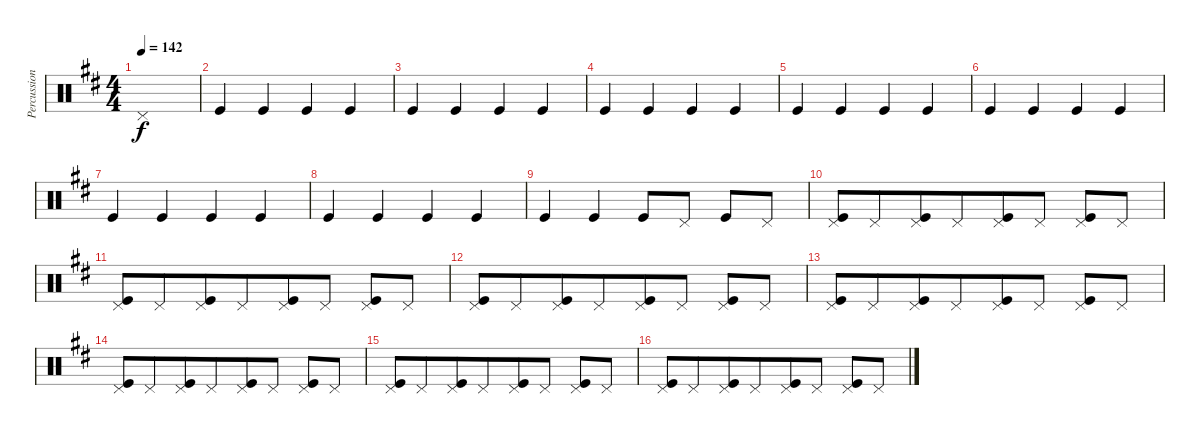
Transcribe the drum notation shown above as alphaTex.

\track ("Percussion" "Percussion") {instrument percussion}
\staff {score}
\articulation defaults
\ts (4 4)
\tempo 142
\clef neutral
\ks d "Pedal Hi-Hat (hit)".1{dy f}
|
"Kick (hit)".4{beam merge} "Kick (hit)".4{beam merge} "Kick (hit)".4 "Kick (hit)".4 |
"Kick (hit)".4 "Kick (hit)".4 "Kick (hit)".4 "Kick (hit)".4 |
"Kick (hit)".4 "Kick (hit)".4 "Kick (hit)".4{beam merge} "Kick (hit)".4 |
"Kick (hit)".4 "Kick (hit)".4 "Kick (hit)".4 "Kick (hit)".4 |
"Kick (hit)".4{beam merge} "Kick (hit)".4 "Kick (hit)".4{beam merge} "Kick (hit)".4 |
"Kick (hit)".4 "Kick (hit)".4{beam merge} "Kick (hit)".4{beam merge} "Kick (hit)".4 |
"Kick (hit)".4 "Kick (hit)".4 "Kick (hit)".4 "Kick (hit)".4 |
"Kick (hit)".4 "Kick (hit)".4{beam merge} "Kick (hit)".8 "Pedal Hi-Hat (hit)".8 "Kick (hit)".8 "Pedal Hi-Hat (hit)".8 |
("Kick (hit)" "Pedal Hi-Hat (hit)").8{beam merge} "Pedal Hi-Hat (hit)".8{beam merge} ("Kick (hit)" "Pedal Hi-Hat (hit)").8 "Pedal Hi-Hat (hit)".8{beam merge} ("Kick (hit)" "Pedal Hi-Hat (hit)").8{beam merge} "Pedal Hi-Hat (hit)".8 ("Kick (hit)" "Pedal Hi-Hat (hit)").8{beam merge} "Pedal Hi-Hat (hit)".8 |
("Kick (hit)" "Pedal Hi-Hat (hit)").8{beam merge} "Pedal Hi-Hat (hit)".8{beam merge} ("Kick (hit)" "Pedal Hi-Hat (hit)").8 "Pedal Hi-Hat (hit)".8{beam merge} ("Kick (hit)" "Pedal Hi-Hat (hit)").8{beam merge} "Pedal Hi-Hat (hit)".8 ("Kick (hit)" "Pedal Hi-Hat (hit)").8{beam merge} "Pedal Hi-Hat (hit)".8 |
("Kick (hit)" "Pedal Hi-Hat (hit)").8{beam merge} "Pedal Hi-Hat (hit)".8{beam merge} ("Kick (hit)" "Pedal Hi-Hat (hit)").8 "Pedal Hi-Hat (hit)".8{beam merge} ("Kick (hit)" "Pedal Hi-Hat (hit)").8{beam merge} "Pedal Hi-Hat (hit)".8 ("Kick (hit)" "Pedal Hi-Hat (hit)").8{beam merge} "Pedal Hi-Hat (hit)".8 |
("Kick (hit)" "Pedal Hi-Hat (hit)").8{beam merge} "Pedal Hi-Hat (hit)".8{beam merge} ("Kick (hit)" "Pedal Hi-Hat (hit)").8 "Pedal Hi-Hat (hit)".8{beam merge} ("Kick (hit)" "Pedal Hi-Hat (hit)").8{beam merge} "Pedal Hi-Hat (hit)".8 ("Kick (hit)" "Pedal Hi-Hat (hit)").8{beam merge} "Pedal Hi-Hat (hit)".8 |
("Kick (hit)" "Pedal Hi-Hat (hit)").8{beam merge} "Pedal Hi-Hat (hit)".8{beam merge} ("Kick (hit)" "Pedal Hi-Hat (hit)").8 "Pedal Hi-Hat (hit)".8{beam merge} ("Kick (hit)" "Pedal Hi-Hat (hit)").8{beam merge} "Pedal Hi-Hat (hit)".8 ("Kick (hit)" "Pedal Hi-Hat (hit)").8{beam merge} "Pedal Hi-Hat (hit)".8 |
("Kick (hit)" "Pedal Hi-Hat (hit)").8{beam merge} "Pedal Hi-Hat (hit)".8{beam merge} ("Kick (hit)" "Pedal Hi-Hat (hit)").8 "Pedal Hi-Hat (hit)".8{beam merge} ("Kick (hit)" "Pedal Hi-Hat (hit)").8{beam merge} "Pedal Hi-Hat (hit)".8 ("Kick (hit)" "Pedal Hi-Hat (hit)").8{beam merge} "Pedal Hi-Hat (hit)".8 |
("Kick (hit)" "Pedal Hi-Hat (hit)").8{beam merge} "Pedal Hi-Hat (hit)".8{beam merge} ("Kick (hit)" "Pedal Hi-Hat (hit)").8 "Pedal Hi-Hat (hit)".8{beam merge} ("Kick (hit)" "Pedal Hi-Hat (hit)").8{beam merge} "Pedal Hi-Hat (hit)".8 ("Kick (hit)" "Pedal Hi-Hat (hit)").8{beam merge} "Pedal Hi-Hat (hit)".8
